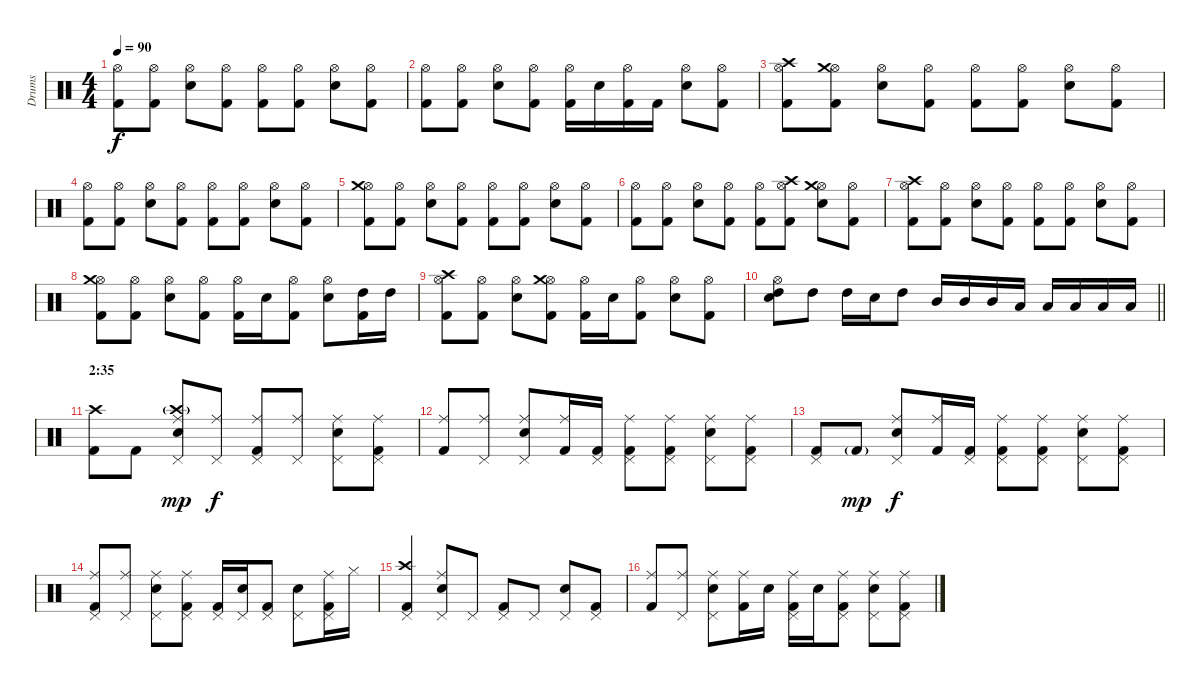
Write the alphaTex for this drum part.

\track ("Drums" "Drums") {instrument percussion}
\staff {score}
\articulation defaults
\ts (4 4)
\tempo 90
\clef neutral
\ks c
("Kick (hit) 2" "Hi-Hat (open)").8{dy f} ("Kick (hit) 2" "Hi-Hat (open)").8 ("Electric Snare (hit)" "Hi-Hat (open)").8 ("Kick (hit) 2" "Hi-Hat (open)").8 ("Kick (hit) 2" "Hi-Hat (open)").8 ("Kick (hit) 2" "Hi-Hat (open)").8 ("Electric Snare (hit)" "Hi-Hat (open)").8 ("Kick (hit) 2" "Hi-Hat (open)").8 |
("Kick (hit) 2" "Hi-Hat (open)").8 ("Kick (hit) 2" "Hi-Hat (open)").8 ("Electric Snare (hit)" "Hi-Hat (open)").8 ("Kick (hit) 2" "Hi-Hat (open)").8 ("Kick (hit) 2" "Hi-Hat (open)").16 "Snare (hit) 2".16 ("Kick (hit) 2" "Hi-Hat (open)").16 "Kick (hit) 2".16 ("Electric Snare (hit)" "Hi-Hat (open)").8 ("Kick (hit) 2" "Hi-Hat (open)").8 |
("Kick (hit) 2" "Hi-Hat (open)" "Crash high (hit)").8 ("Kick (hit) 2" "Hi-Hat (open)" "Crash medium (hit)").8 ("Electric Snare (hit)" "Hi-Hat (open)").8 ("Kick (hit) 2" "Hi-Hat (open)").8 ("Kick (hit) 2" "Hi-Hat (open)").8 ("Kick (hit) 2" "Hi-Hat (open)").8 ("Electric Snare (hit)" "Hi-Hat (open)").8 ("Kick (hit) 2" "Hi-Hat (open)").8 |
("Kick (hit) 2" "Hi-Hat (open)").8 ("Kick (hit) 2" "Hi-Hat (open)").8 ("Electric Snare (hit)" "Hi-Hat (open)").8 ("Kick (hit) 2" "Hi-Hat (open)").8 ("Kick (hit) 2" "Hi-Hat (open)").8 ("Kick (hit) 2" "Hi-Hat (open)").8 ("Electric Snare (hit)" "Hi-Hat (open)").8 ("Kick (hit) 2" "Hi-Hat (open)").8 |
("Kick (hit) 2" "Hi-Hat (open)" "Crash medium (hit)").8 ("Kick (hit) 2" "Hi-Hat (open)").8 ("Electric Snare (hit)" "Hi-Hat (open)").8 ("Kick (hit) 2" "Hi-Hat (open)").8 ("Kick (hit) 2" "Hi-Hat (open)").8 ("Kick (hit) 2" "Hi-Hat (open)").8 ("Electric Snare (hit)" "Hi-Hat (open)").8 ("Kick (hit) 2" "Hi-Hat (open)").8 |
("Kick (hit) 2" "Hi-Hat (open)").8 ("Kick (hit) 2" "Hi-Hat (open)").8 ("Electric Snare (hit)" "Hi-Hat (open)").8 ("Kick (hit) 2" "Hi-Hat (open)").8 ("Kick (hit) 2" "Hi-Hat (open)").8 ("Kick (hit) 2" "Hi-Hat (open)" "Crash high (hit)").8 ("Electric Snare (hit)" "Hi-Hat (open)" "Crash medium (hit)").8 ("Kick (hit) 2" "Hi-Hat (open)").8 |
("Kick (hit) 2" "Hi-Hat (open)" "Crash high (hit)").8 ("Kick (hit) 2" "Hi-Hat (open)").8 ("Electric Snare (hit)" "Hi-Hat (open)").8 ("Kick (hit) 2" "Hi-Hat (open)").8 ("Kick (hit) 2" "Hi-Hat (open)").8 ("Kick (hit) 2" "Hi-Hat (open)").8 ("Electric Snare (hit)" "Hi-Hat (open)").8 ("Kick (hit) 2" "Hi-Hat (open)").8 |
("Kick (hit) 2" "Hi-Hat (open)" "Crash medium (hit)").8 ("Kick (hit) 2" "Hi-Hat (open)").8 ("Electric Snare (hit)" "Hi-Hat (open)").8 ("Kick (hit) 2" "Hi-Hat (open)").8 ("Kick (hit) 2" "Hi-Hat (open)").16 "Electric Snare (hit)".16 ("Kick (hit) 2" "Hi-Hat (open)").8 ("Electric Snare (hit)" "Hi-Hat (open)").8 ("Kick (hit) 2" "High Tom (hit)").16 "High Tom (hit)".16 |
("Kick (hit) 2" "Hi-Hat (open)" "Crash high (hit)").8 ("Kick (hit) 2" "Hi-Hat (open)").8 ("Electric Snare (hit)" "Hi-Hat (open)").8 ("Kick (hit) 2" "Hi-Hat (open)" "Crash medium (hit)").8 ("Kick (hit) 2" "Hi-Hat (open)").16 "Electric Snare (hit)".16 ("Kick (hit) 2" "Hi-Hat (open)").8 ("Electric Snare (hit)" "Hi-Hat (open)").8 ("Kick (hit) 2" "Hi-Hat (open)").8 |
\barLineRight lightlight
("Electric Snare (hit)" "Hi-Hat (open)" "High Tom (hit)").8 "High Tom (hit)".8 "High Tom (hit)".16 "Snare (hit) 2".16 "High Tom (hit)".8 "Mid Tom (hit)".16 "Mid Tom (hit)".16 "Mid Tom (hit)".16 "Low Tom (hit)".16 "Low Tom (hit)".16 "Low Tom (hit)".16 "Low Tom (hit)".16 "Low Tom (hit)".16 |
\section ("" "2:35")
("Kick (hit) 2" "Crash high (hit)").8 "Kick (hit) 2".8 ("Snare (hit) 2" "Pedal Hi-Hat (hit)" "Crash high (hit)"{g} "Ride (middle)").8{dy mp} ("Pedal Hi-Hat (hit)" "Ride (middle)").8{dy f} ("Kick (hit) 2" "Pedal Hi-Hat (hit)" "Ride (middle)").8 ("Pedal Hi-Hat (hit)" "Ride (middle)").8 ("Snare (hit) 2" "Pedal Hi-Hat (hit)" "Ride (middle)").8 ("Kick (hit) 2" "Pedal Hi-Hat (hit)" "Ride (middle)").8 |
("Kick (hit) 2" "Ride (middle)").8 ("Pedal Hi-Hat (hit)" "Ride (middle)").8 ("Snare (hit) 2" "Pedal Hi-Hat (hit)" "Ride (middle)").8 ("Kick (hit) 2" "Ride (middle)").16 ("Kick (hit) 2" "Pedal Hi-Hat (hit)").16 ("Kick (hit) 2" "Pedal Hi-Hat (hit)" "Ride (middle)").8 ("Kick (hit) 2" "Pedal Hi-Hat (hit)" "Ride (middle)").8 ("Snare (hit) 2" "Pedal Hi-Hat (hit)" "Ride (middle)").8 ("Kick (hit) 2" "Pedal Hi-Hat (hit)" "Ride (middle)").8 |
("Kick (hit) 2" "Pedal Hi-Hat (hit)").8 "Kick (hit) 2"{g}.8{dy mp} ("Snare (hit) 2" "Pedal Hi-Hat (hit)" "Ride (middle)").8{dy f} ("Kick (hit) 2" "Ride (middle)").16 ("Kick (hit) 2" "Pedal Hi-Hat (hit)").16 ("Kick (hit) 2" "Pedal Hi-Hat (hit)" "Ride (middle)").8 ("Kick (hit) 2" "Pedal Hi-Hat (hit)" "Ride (middle)").8 ("Snare (hit) 2" "Pedal Hi-Hat (hit)" "Ride (middle)").8 ("Kick (hit) 2" "Pedal Hi-Hat (hit)" "Ride (middle)").8 |
("Kick (hit) 2" "Pedal Hi-Hat (hit)" "Ride (middle)").8 ("Pedal Hi-Hat (hit)" "Ride (middle)").8 ("Snare (hit) 2" "Pedal Hi-Hat (hit)" "Ride (middle)").8 ("Kick (hit) 2" "Pedal Hi-Hat (hit)" "Ride (middle)").8 ("Kick (hit) 2" "Pedal Hi-Hat (hit)").16 ("Snare (hit) 2" "Pedal Hi-Hat (hit)").16 ("Kick (hit) 2" "Pedal Hi-Hat (hit)").8 ("Snare (hit) 2" "Pedal Hi-Hat (hit)").8 ("Kick (hit) 2" "Pedal Hi-Hat (hit)" "Ride (middle)").16 "Hi-Hat (closed)".16 |
("Kick (hit) 2" "Pedal Hi-Hat (hit)" "Crash high (hit)").4 ("Snare (hit) 2" "Pedal Hi-Hat (hit)" "Ride (middle)").8 "Pedal Hi-Hat (hit)".8 ("Kick (hit) 2" "Pedal Hi-Hat (hit)").8 "Pedal Hi-Hat (hit)".8 ("Snare (hit) 2" "Pedal Hi-Hat (hit)").8 ("Kick (hit) 2" "Pedal Hi-Hat (hit)").8 |
("Kick (hit) 2" "Ride (middle)").8 ("Pedal Hi-Hat (hit)" "Ride (middle)").8 ("Snare (hit) 2" "Pedal Hi-Hat (hit)" "Ride (middle)").8 ("Kick (hit) 2" "Ride (middle)").16 "Snare (hit) 2".16 ("Kick (hit) 2" "Pedal Hi-Hat (hit)" "Ride (middle)").16 "Snare (hit) 2".16 ("Kick (hit) 2" "Pedal Hi-Hat (hit)" "Ride (middle)").8 ("Snare (hit) 2" "Pedal Hi-Hat (hit)" "Ride (middle)").8 ("Kick (hit) 2" "Pedal Hi-Hat (hit)" "Ride (middle)").8
